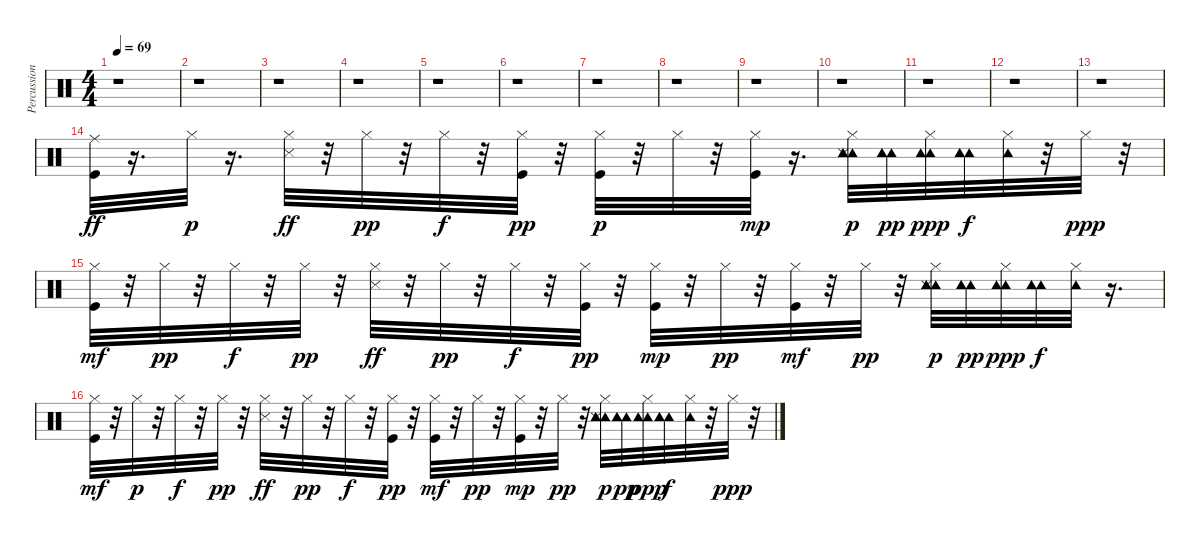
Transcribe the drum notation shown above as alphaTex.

\track ("Percussions" "Percussion") {instrument percussion}
\staff {score}
\articulation defaults
\ts (4 4)
\tempo 69
\clef neutral
\ks c
r.1{dy ff} |
r.1 |
r.1 |
r.1 |
r.1 |
r.1 |
r.1 |
r.1 |
r.1 |
r.1 |
r.1 |
r.1 |
r.1 |
("Kick (hit)" "Ride (middle)").32 r.16{d} "Hi-Hat (closed)".32{dy p} r.16{d} ("Snare (side stick) 3" "Hi-Hat (closed)").32{dy ff} r.32 "Hi-Hat (closed)".32{dy pp} r.32 "Hi-Hat (closed)".32{dy f} r.32 ("Hi-Hat (closed)" "Kick (hit)").32{dy pp} r.32 ("Kick (hit)" "Hi-Hat (closed)").32{dy p} r.32 "Hi-Hat (closed)".32 r.32 ("Hi-Hat (closed)" "Kick (hit)").32{dy mp} r.16{d} ("Tambourine (hit)" "Tambourine (hit)" "Snare (side stick) 3" "Hi-Hat (closed)" "Tambourine (hit)").32{dy p} ("Tambourine (hit)" "Tambourine (hit)" "Tambourine (hit)").32{dy pp} ("Tambourine (hit)" "Hi-Hat (closed)" "Tambourine (hit)").32{dy ppp} ("Tambourine (hit)" "Tambourine (hit)" "Tambourine (hit)").32{dy f} ("Tambourine (hit)" "Hi-Hat (closed)").32 r.32 "Hi-Hat (closed)".32{dy ppp} r.32 |
("Kick (hit)" "Hi-Hat (closed)").32{dy mf} r.32 "Hi-Hat (closed)".32{dy pp} r.32 "Hi-Hat (closed)".32{dy f} r.32 "Hi-Hat (closed)".32{dy pp} r.32 ("Hi-Hat (closed)" "Snare (side stick) 3").32{dy ff} r.32 "Hi-Hat (closed)".32{dy pp} r.32 "Hi-Hat (closed)".32{dy f} r.32 ("Hi-Hat (closed)" "Kick (hit)").32{dy pp} r.32 ("Kick (hit)" "Hi-Hat (closed)").32{dy mp} r.32 "Hi-Hat (closed)".32{dy pp} r.32 ("Kick (hit)" "Hi-Hat (closed)").32{dy mf} r.32 "Hi-Hat (closed)".32{dy pp} r.32 ("Tambourine (hit)" "Hi-Hat (closed)" "Tambourine (hit)" "Snare (side stick) 3" "Tambourine (hit)").32{dy p} ("Tambourine (hit)" "Tambourine (hit)" "Tambourine (hit)").32{dy pp} ("Tambourine (hit)" "Hi-Hat (closed)" "Tambourine (hit)").32{dy ppp} ("Tambourine (hit)" "Tambourine (hit)" "Tambourine (hit)").32{dy f} ("Tambourine (hit)" "Hi-Hat (closed)").32 r.16{d} |
("Kick (hit)" "Hi-Hat (closed)").32{dy mf} r.32 "Hi-Hat (closed)".32{dy p} r.32 "Hi-Hat (closed)".32{dy f} r.32 "Hi-Hat (closed)".32{dy pp} r.32 ("Hi-Hat (closed)" "Snare (side stick) 3").32{dy ff} r.32 "Hi-Hat (closed)".32{dy pp} r.32 "Hi-Hat (closed)".32{dy f} r.32 ("Kick (hit)" "Hi-Hat (closed)").32{dy pp} r.32 ("Kick (hit)" "Hi-Hat (closed)").32{dy mf} r.32 "Hi-Hat (closed)".32{dy pp} r.32 ("Kick (hit)" "Hi-Hat (closed)").32{dy mp} r.32 "Hi-Hat (closed)".32{dy pp} r.32 ("Tambourine (hit)" "Tambourine (hit)" "Snare (side stick) 3" "Hi-Hat (closed)" "Tambourine (hit)").32{dy p} ("Tambourine (hit)" "Tambourine (hit)" "Tambourine (hit)").32{dy pp} ("Tambourine (hit)" "Hi-Hat (closed)" "Tambourine (hit)").32{dy ppp} ("Tambourine (hit)" "Tambourine (hit)" "Tambourine (hit)").32{dy f} ("Tambourine (hit)" "Hi-Hat (closed)").32 r.32 "Hi-Hat (closed)".32{dy ppp} r.32
